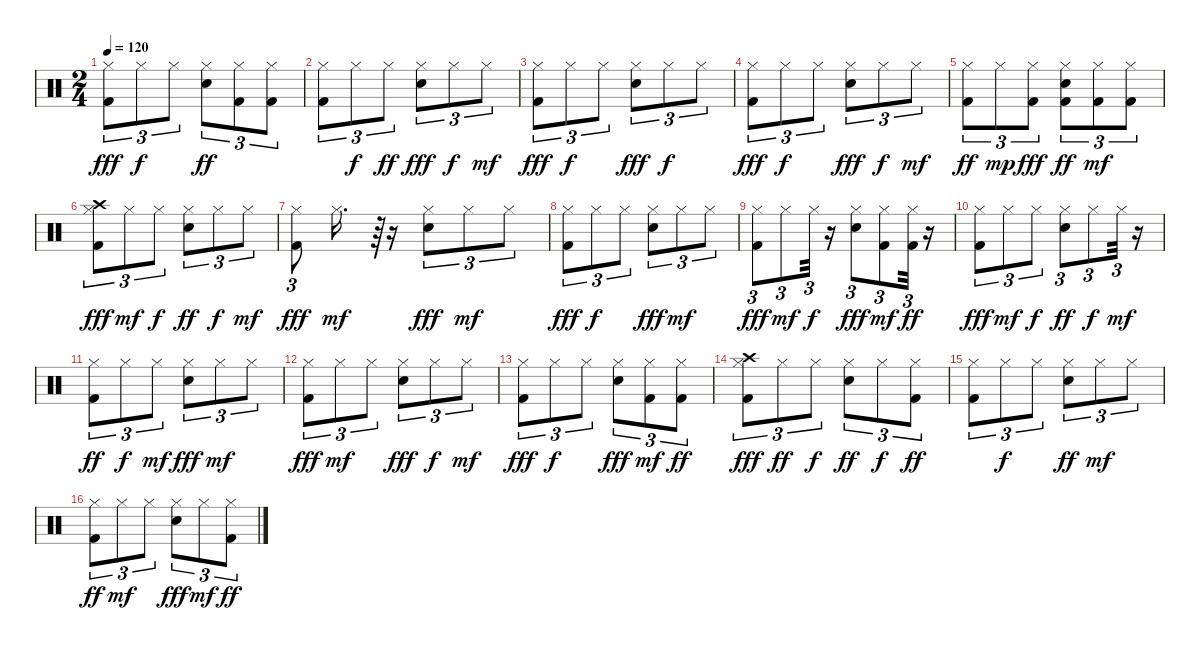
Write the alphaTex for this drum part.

\track "" {instrument percussion}
\staff {score}
\articulation defaults
\ts (2 4)
\tempo 120
\clef neutral
\ks c
("Hi-Hat (closed)" "Kick (hit) 2").8{tu (3 2) dy fff} "Hi-Hat (closed)".8{tu (3 2) dy f} "Hi-Hat (closed)".8{tu (3 2)} ("Snare (hit) 2" "Hi-Hat (closed)").8{tu (3 2) dy ff} ("Kick (hit) 2" "Hi-Hat (closed)").8{tu (3 2)} ("Hi-Hat (closed)" "Kick (hit) 2").8{tu (3 2)} |
("Kick (hit) 2" "Hi-Hat (closed)").8{tu (3 2)} "Hi-Hat (closed)".8{tu (3 2) dy f} "Hi-Hat (closed)".8{tu (3 2) dy ff} ("Snare (hit) 2" "Hi-Hat (closed)").8{tu (3 2) dy fff} "Hi-Hat (closed)".8{tu (3 2) dy f} "Hi-Hat (closed)".8{tu (3 2) dy mf} |
("Kick (hit) 2" "Hi-Hat (closed)").8{tu (3 2) dy fff} "Hi-Hat (closed)".8{tu (3 2) dy f} "Hi-Hat (closed)".8{tu (3 2)} ("Snare (hit) 2" "Hi-Hat (closed)").8{tu (3 2) dy fff} "Hi-Hat (closed)".8{tu (3 2) dy f} "Hi-Hat (closed)".8{tu (3 2)} |
("Kick (hit) 2" "Hi-Hat (closed)").8{tu (3 2) dy fff} "Hi-Hat (closed)".8{tu (3 2) dy f} "Hi-Hat (closed)".8{tu (3 2)} ("Snare (hit) 2" "Hi-Hat (closed)").8{tu (3 2) dy fff} "Hi-Hat (closed)".8{tu (3 2) dy f} "Hi-Hat (closed)".8{tu (3 2) dy mf} |
("Kick (hit) 2" "Hi-Hat (closed)").8{tu (3 2) dy ff} "Hi-Hat (closed)".8{tu (3 2) dy mp} ("Kick (hit) 2" "Hi-Hat (closed)").8{tu (3 2) dy fff} ("Snare (hit) 2" "Kick (hit) 2" "Hi-Hat (closed)").8{tu (3 2) dy ff} ("Kick (hit) 2" "Hi-Hat (closed)").8{tu (3 2) dy mf} ("Kick (hit) 2" "Hi-Hat (closed)").8{tu (3 2)} |
("Crash high (hit)" "Hi-Hat (closed)" "Kick (hit) 2").8{tu (3 2) dy fff} "Hi-Hat (closed)".8{tu (3 2) dy mf} "Hi-Hat (closed)".8{tu (3 2) dy f} ("Snare (hit) 2" "Hi-Hat (closed)").8{tu (3 2) dy ff} "Hi-Hat (closed)".8{tu (3 2) dy f} "Hi-Hat (closed)".8{tu (3 2) dy mf} |
("Kick (hit) 2" "Hi-Hat (closed)").8{tu (3 2) dy fff} "Hi-Hat (closed)".16{d dy mf} r.64{tu (3 2)} r.16 ("Snare (hit) 2" "Hi-Hat (closed)").8{tu (3 2) dy fff} "Hi-Hat (closed)".8{tu (3 2) dy mf} "Hi-Hat (closed)".8{tu (3 2)} |
("Kick (hit) 2" "Hi-Hat (closed)").8{tu (3 2) dy fff} "Hi-Hat (closed)".8{tu (3 2) dy f} "Hi-Hat (closed)".8{tu (3 2)} ("Hi-Hat (closed)" "Snare (hit) 2").8{tu (3 2) dy fff} "Hi-Hat (closed)".8{tu (3 2) dy mf} "Hi-Hat (closed)".8{tu (3 2)} |
("Kick (hit) 2" "Hi-Hat (closed)").8{tu (3 2) dy fff} "Hi-Hat (closed)".8{tu (3 2) dy mf} "Hi-Hat (closed)".32{tu (3 2) dy f} r.16 ("Snare (hit) 2" "Hi-Hat (closed)").8{tu (3 2) dy fff} ("Kick (hit) 2" "Hi-Hat (closed)").8{tu (3 2) dy mf} ("Hi-Hat (closed)" "Kick (hit) 2").32{tu (3 2) dy ff} r.16 |
("Kick (hit) 2" "Hi-Hat (closed)").8{tu (3 2) dy fff} "Hi-Hat (closed)".8{tu (3 2) dy mf} "Hi-Hat (closed)".8{tu (3 2) dy f} ("Snare (hit) 2" "Hi-Hat (closed)").8{tu (3 2) dy ff} "Hi-Hat (closed)".8{tu (3 2) dy f} "Hi-Hat (closed)".32{tu (3 2) dy mf} r.16 |
("Kick (hit) 2" "Hi-Hat (closed)").8{tu (3 2) dy ff} "Hi-Hat (closed)".8{tu (3 2) dy f} "Hi-Hat (closed)".8{tu (3 2) dy mf} ("Snare (hit) 2" "Hi-Hat (closed)").8{tu (3 2) dy fff} "Hi-Hat (closed)".8{tu (3 2) dy mf} "Hi-Hat (closed)".8{tu (3 2)} |
("Hi-Hat (closed)" "Kick (hit) 2").8{tu (3 2) dy fff} "Hi-Hat (closed)".8{tu (3 2) dy mf} "Hi-Hat (closed)".8{tu (3 2)} ("Hi-Hat (closed)" "Snare (hit) 2").8{tu (3 2) dy fff} "Hi-Hat (closed)".8{tu (3 2) dy f} "Hi-Hat (closed)".8{tu (3 2) dy mf} |
("Kick (hit) 2" "Hi-Hat (closed)").8{tu (3 2) dy fff} "Hi-Hat (closed)".8{tu (3 2) dy f} "Hi-Hat (closed)".8{tu (3 2)} ("Snare (hit) 2" "Hi-Hat (closed)").8{tu (3 2) dy fff} ("Kick (hit) 2" "Hi-Hat (closed)").8{tu (3 2) dy mf} ("Hi-Hat (closed)" "Kick (hit) 2").8{tu (3 2) dy ff} |
("Crash high (hit)" "Hi-Hat (closed)" "Kick (hit) 2").8{tu (3 2) dy fff} "Hi-Hat (closed)".8{tu (3 2) dy ff} "Hi-Hat (closed)".8{tu (3 2) dy f} ("Snare (hit) 2" "Hi-Hat (closed)").8{tu (3 2) dy ff} "Hi-Hat (closed)".8{tu (3 2) dy f} ("Kick (hit) 2" "Hi-Hat (closed)").8{tu (3 2) dy ff} |
("Kick (hit) 2" "Hi-Hat (closed)").8{tu (3 2)} "Hi-Hat (closed)".8{tu (3 2) dy f} "Hi-Hat (closed)".8{tu (3 2)} ("Snare (hit) 2" "Hi-Hat (closed)").8{tu (3 2) dy ff} "Hi-Hat (closed)".8{tu (3 2) dy mf} "Hi-Hat (closed)".8{tu (3 2)} |
("Kick (hit) 2" "Hi-Hat (closed)").8{tu (3 2) dy ff} "Hi-Hat (closed)".8{tu (3 2) dy mf} "Hi-Hat (closed)".8{tu (3 2)} ("Snare (hit) 2" "Hi-Hat (closed)").8{tu (3 2) dy fff} "Hi-Hat (closed)".8{tu (3 2) dy mf} ("Hi-Hat (closed)" "Kick (hit) 2").8{tu (3 2) dy ff}
